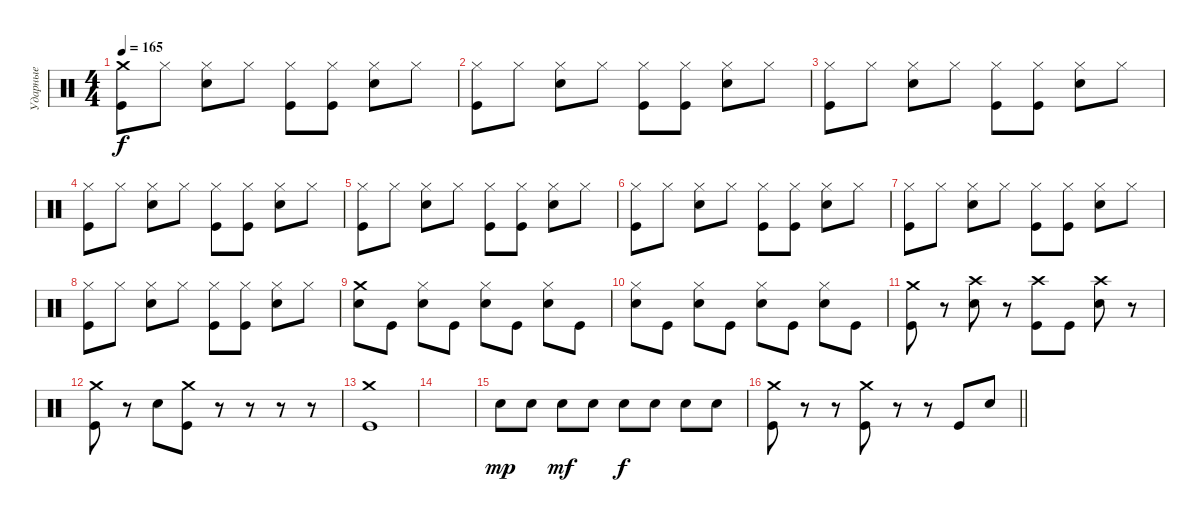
\track ("Ударные" "Ударные") {instrument percussion}
\staff {score}
\articulation defaults
\ts (4 4)
\tempo 165
\clef neutral
\ks c
("Crash medium (hit)" "Kick (hit)").8{dy f} "Hi-Hat (closed)".8 ("Hi-Hat (closed)" "Electric Snare (hit)").8 "Hi-Hat (closed)".8 ("Hi-Hat (closed)" "Kick (hit)").8 ("Hi-Hat (closed)" "Kick (hit)").8 ("Hi-Hat (closed)" "Electric Snare (hit)").8 "Hi-Hat (closed)".8 |
("Hi-Hat (closed)" "Kick (hit)").8 "Hi-Hat (closed)".8 ("Hi-Hat (closed)" "Electric Snare (hit)").8 "Hi-Hat (closed)".8 ("Hi-Hat (closed)" "Kick (hit)").8 ("Hi-Hat (closed)" "Kick (hit)").8 ("Hi-Hat (closed)" "Electric Snare (hit)").8 "Hi-Hat (closed)".8 |
("Hi-Hat (closed)" "Kick (hit)").8 "Hi-Hat (closed)".8 ("Hi-Hat (closed)" "Electric Snare (hit)").8 "Hi-Hat (closed)".8 ("Hi-Hat (closed)" "Kick (hit)").8 ("Hi-Hat (closed)" "Kick (hit)").8 ("Hi-Hat (closed)" "Electric Snare (hit)").8 "Hi-Hat (closed)".8 |
("Hi-Hat (closed)" "Kick (hit)").8 "Hi-Hat (closed)".8 ("Hi-Hat (closed)" "Electric Snare (hit)").8 "Hi-Hat (closed)".8 ("Hi-Hat (closed)" "Kick (hit)").8 ("Hi-Hat (closed)" "Kick (hit)").8 ("Hi-Hat (closed)" "Electric Snare (hit)").8 "Hi-Hat (closed)".8 |
("Hi-Hat (closed)" "Kick (hit)").8 "Hi-Hat (closed)".8 ("Hi-Hat (closed)" "Electric Snare (hit)").8 "Hi-Hat (closed)".8 ("Hi-Hat (closed)" "Kick (hit)").8 ("Hi-Hat (closed)" "Kick (hit)").8 ("Hi-Hat (closed)" "Electric Snare (hit)").8 "Hi-Hat (closed)".8 |
("Hi-Hat (closed)" "Kick (hit)").8 "Hi-Hat (closed)".8 ("Hi-Hat (closed)" "Electric Snare (hit)").8 "Hi-Hat (closed)".8 ("Hi-Hat (closed)" "Kick (hit)").8 ("Hi-Hat (closed)" "Kick (hit)").8 ("Hi-Hat (closed)" "Electric Snare (hit)").8 "Hi-Hat (closed)".8 |
("Hi-Hat (closed)" "Kick (hit)").8 "Hi-Hat (closed)".8 ("Hi-Hat (closed)" "Electric Snare (hit)").8 "Hi-Hat (closed)".8 ("Hi-Hat (closed)" "Kick (hit)").8 ("Hi-Hat (closed)" "Kick (hit)").8 ("Hi-Hat (closed)" "Electric Snare (hit)").8 "Hi-Hat (closed)".8 |
("Hi-Hat (closed)" "Kick (hit)").8 "Hi-Hat (closed)".8 ("Hi-Hat (closed)" "Electric Snare (hit)").8 "Hi-Hat (closed)".8 ("Hi-Hat (closed)" "Kick (hit)").8 ("Hi-Hat (closed)" "Kick (hit)").8 ("Hi-Hat (closed)" "Electric Snare (hit)").8 "Hi-Hat (closed)".8 |
("Crash medium (hit)" "Electric Snare (hit)").8 "Kick (hit)".8 ("Hi-Hat (closed)" "Electric Snare (hit)").8 "Kick (hit)".8 ("Hi-Hat (closed)" "Electric Snare (hit)").8 "Kick (hit)".8 ("Hi-Hat (closed)" "Electric Snare (hit)").8 "Kick (hit)".8 |
("Hi-Hat (closed)" "Electric Snare (hit)").8 "Kick (hit)".8 ("Hi-Hat (closed)" "Electric Snare (hit)").8 "Kick (hit)".8 ("Hi-Hat (closed)" "Electric Snare (hit)").8 "Kick (hit)".8 ("Hi-Hat (closed)" "Electric Snare (hit)").8 "Kick (hit)".8 |
("Crash medium (hit)" "Kick (hit)").8 r.8 ("Crash high (hit)" "Electric Snare (hit)").8 r.8 ("Crash high (hit)" "Kick (hit)").8 "Kick (hit)".8 ("Crash high (hit)" "Electric Snare (hit)").8 r.8 |
("Crash medium (hit)" "Kick (hit)").8 r.8 "Electric Snare (hit)".8 ("Crash medium (hit)" "Kick (hit)").8 r.8 r.8 r.8 r.8 |
("Crash medium (hit)" "Kick (hit)").1 |
|
"Electric Snare (hit)".8{dy mp} "Electric Snare (hit)".8 "Electric Snare (hit)".8{dy mf} "Electric Snare (hit)".8 "Electric Snare (hit)".8{dy f} "Electric Snare (hit)".8 "Electric Snare (hit)".8 "Electric Snare (hit)".8 |
\barLineRight lightlight
("Crash medium (hit)" "Kick (hit)").8 r.8 r.8 ("Crash medium (hit)" "Kick (hit)").8 r.8 r.8 "Kick (hit)".8 "Electric Snare (hit)".8
